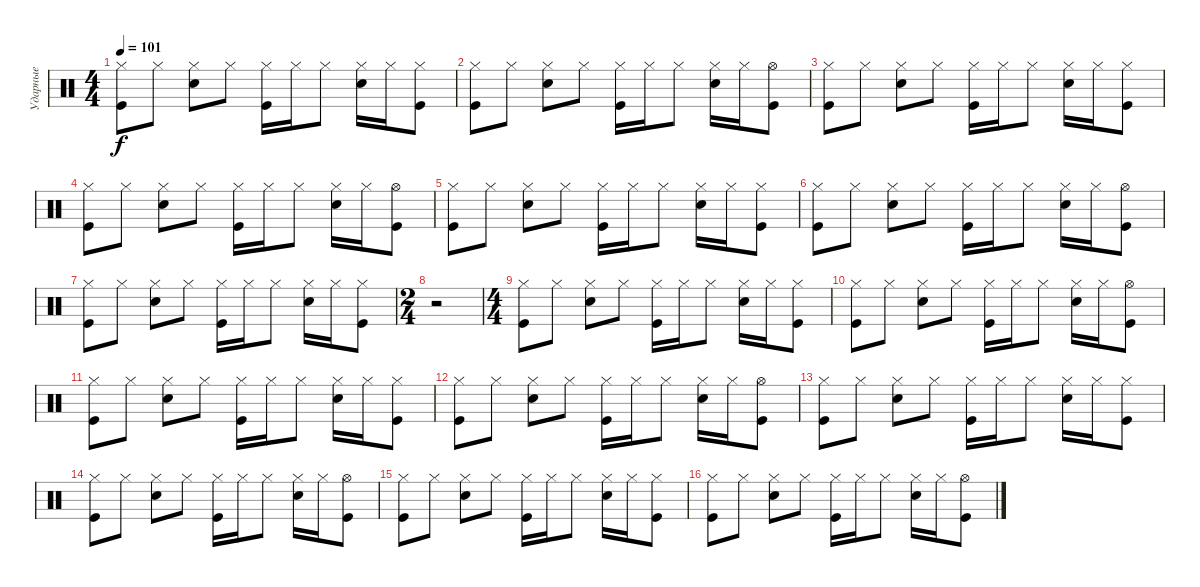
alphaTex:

\track ("Ударные" "Ударные") {instrument percussion}
\staff {score}
\articulation defaults
\ts (4 4)
\tempo 101
\clef neutral
\ks c
("Hi-Hat (closed)" "Kick (hit)").8{dy f} "Hi-Hat (closed)".8 ("Hi-Hat (closed)" "Snare (hit) 2").8 "Hi-Hat (closed)".8 ("Hi-Hat (closed)" "Kick (hit)").16 "Hi-Hat (closed)".16 "Hi-Hat (closed)".8 ("Snare (hit) 2" "Hi-Hat (closed)").16 "Hi-Hat (closed)".16 ("Hi-Hat (closed)" "Kick (hit)").8 |
("Hi-Hat (closed)" "Kick (hit)").8 "Hi-Hat (closed)".8 ("Hi-Hat (closed)" "Snare (hit) 2").8 "Hi-Hat (closed)".8 ("Hi-Hat (closed)" "Kick (hit)").16 "Hi-Hat (closed)".16 "Hi-Hat (closed)".8 ("Snare (hit) 2" "Hi-Hat (closed)").16 "Hi-Hat (closed)".16 ("Hi-Hat (open)" "Kick (hit)").8 |
("Hi-Hat (closed)" "Kick (hit)").8 "Hi-Hat (closed)".8 ("Hi-Hat (closed)" "Snare (hit) 2").8 "Hi-Hat (closed)".8 ("Hi-Hat (closed)" "Kick (hit)").16 "Hi-Hat (closed)".16 "Hi-Hat (closed)".8 ("Snare (hit) 2" "Hi-Hat (closed)").16 "Hi-Hat (closed)".16 ("Hi-Hat (closed)" "Kick (hit)").8 |
("Hi-Hat (closed)" "Kick (hit)").8 "Hi-Hat (closed)".8 ("Hi-Hat (closed)" "Snare (hit) 2").8 "Hi-Hat (closed)".8 ("Hi-Hat (closed)" "Kick (hit)").16 "Hi-Hat (closed)".16 "Hi-Hat (closed)".8 ("Snare (hit) 2" "Hi-Hat (closed)").16 "Hi-Hat (closed)".16 ("Hi-Hat (open)" "Kick (hit)").8 |
("Hi-Hat (closed)" "Kick (hit)").8 "Hi-Hat (closed)".8 ("Hi-Hat (closed)" "Snare (hit) 2").8 "Hi-Hat (closed)".8 ("Hi-Hat (closed)" "Kick (hit)").16 "Hi-Hat (closed)".16 "Hi-Hat (closed)".8 ("Snare (hit) 2" "Hi-Hat (closed)").16 "Hi-Hat (closed)".16 ("Hi-Hat (closed)" "Kick (hit)").8 |
("Hi-Hat (closed)" "Kick (hit)").8 "Hi-Hat (closed)".8 ("Hi-Hat (closed)" "Snare (hit) 2").8 "Hi-Hat (closed)".8 ("Hi-Hat (closed)" "Kick (hit)").16 "Hi-Hat (closed)".16 "Hi-Hat (closed)".8 ("Snare (hit) 2" "Hi-Hat (closed)").16 "Hi-Hat (closed)".16 ("Hi-Hat (open)" "Kick (hit)").8 |
("Hi-Hat (closed)" "Kick (hit)").8 "Hi-Hat (closed)".8 ("Hi-Hat (closed)" "Snare (hit) 2").8 "Hi-Hat (closed)".8 ("Hi-Hat (closed)" "Kick (hit)").16 "Hi-Hat (closed)".16 "Hi-Hat (closed)".8 ("Snare (hit) 2" "Hi-Hat (closed)").16 "Hi-Hat (closed)".16 ("Hi-Hat (closed)" "Kick (hit)").8 |
\ts (2 4)
r.2 |
\ts (4 4)
("Hi-Hat (closed)" "Kick (hit)").8 "Hi-Hat (closed)".8 ("Hi-Hat (closed)" "Snare (hit) 2").8 "Hi-Hat (closed)".8 ("Hi-Hat (closed)" "Kick (hit)").16 "Hi-Hat (closed)".16 "Hi-Hat (closed)".8 ("Snare (hit) 2" "Hi-Hat (closed)").16 "Hi-Hat (closed)".16 ("Hi-Hat (closed)" "Kick (hit)").8 |
("Hi-Hat (closed)" "Kick (hit)").8 "Hi-Hat (closed)".8 ("Hi-Hat (closed)" "Snare (hit) 2").8 "Hi-Hat (closed)".8 ("Hi-Hat (closed)" "Kick (hit)").16 "Hi-Hat (closed)".16 "Hi-Hat (closed)".8 ("Snare (hit) 2" "Hi-Hat (closed)").16 "Hi-Hat (closed)".16 ("Hi-Hat (open)" "Kick (hit)").8 |
("Hi-Hat (closed)" "Kick (hit)").8 "Hi-Hat (closed)".8 ("Hi-Hat (closed)" "Snare (hit) 2").8 "Hi-Hat (closed)".8 ("Hi-Hat (closed)" "Kick (hit)").16 "Hi-Hat (closed)".16 "Hi-Hat (closed)".8 ("Snare (hit) 2" "Hi-Hat (closed)").16 "Hi-Hat (closed)".16 ("Hi-Hat (closed)" "Kick (hit)").8 |
("Hi-Hat (closed)" "Kick (hit)").8 "Hi-Hat (closed)".8 ("Hi-Hat (closed)" "Snare (hit) 2").8 "Hi-Hat (closed)".8 ("Hi-Hat (closed)" "Kick (hit)").16 "Hi-Hat (closed)".16 "Hi-Hat (closed)".8 ("Snare (hit) 2" "Hi-Hat (closed)").16 "Hi-Hat (closed)".16 ("Hi-Hat (open)" "Kick (hit)").8 |
("Hi-Hat (closed)" "Kick (hit)").8 "Hi-Hat (closed)".8 ("Hi-Hat (closed)" "Snare (hit) 2").8 "Hi-Hat (closed)".8 ("Hi-Hat (closed)" "Kick (hit)").16 "Hi-Hat (closed)".16 "Hi-Hat (closed)".8 ("Snare (hit) 2" "Hi-Hat (closed)").16 "Hi-Hat (closed)".16 ("Hi-Hat (closed)" "Kick (hit)").8 |
("Hi-Hat (closed)" "Kick (hit)").8 "Hi-Hat (closed)".8 ("Hi-Hat (closed)" "Snare (hit) 2").8 "Hi-Hat (closed)".8 ("Hi-Hat (closed)" "Kick (hit)").16 "Hi-Hat (closed)".16 "Hi-Hat (closed)".8 ("Snare (hit) 2" "Hi-Hat (closed)").16 "Hi-Hat (closed)".16 ("Hi-Hat (open)" "Kick (hit)").8 |
("Hi-Hat (closed)" "Kick (hit)").8 "Hi-Hat (closed)".8 ("Hi-Hat (closed)" "Snare (hit) 2").8 "Hi-Hat (closed)".8 ("Hi-Hat (closed)" "Kick (hit)").16 "Hi-Hat (closed)".16 "Hi-Hat (closed)".8 ("Snare (hit) 2" "Hi-Hat (closed)").16 "Hi-Hat (closed)".16 ("Hi-Hat (closed)" "Kick (hit)").8 |
("Hi-Hat (closed)" "Kick (hit)").8 "Hi-Hat (closed)".8 ("Hi-Hat (closed)" "Snare (hit) 2").8 "Hi-Hat (closed)".8 ("Hi-Hat (closed)" "Kick (hit)").16 "Hi-Hat (closed)".16 "Hi-Hat (closed)".8 ("Snare (hit) 2" "Hi-Hat (closed)").16 "Hi-Hat (closed)".16 ("Hi-Hat (open)" "Kick (hit)").8
